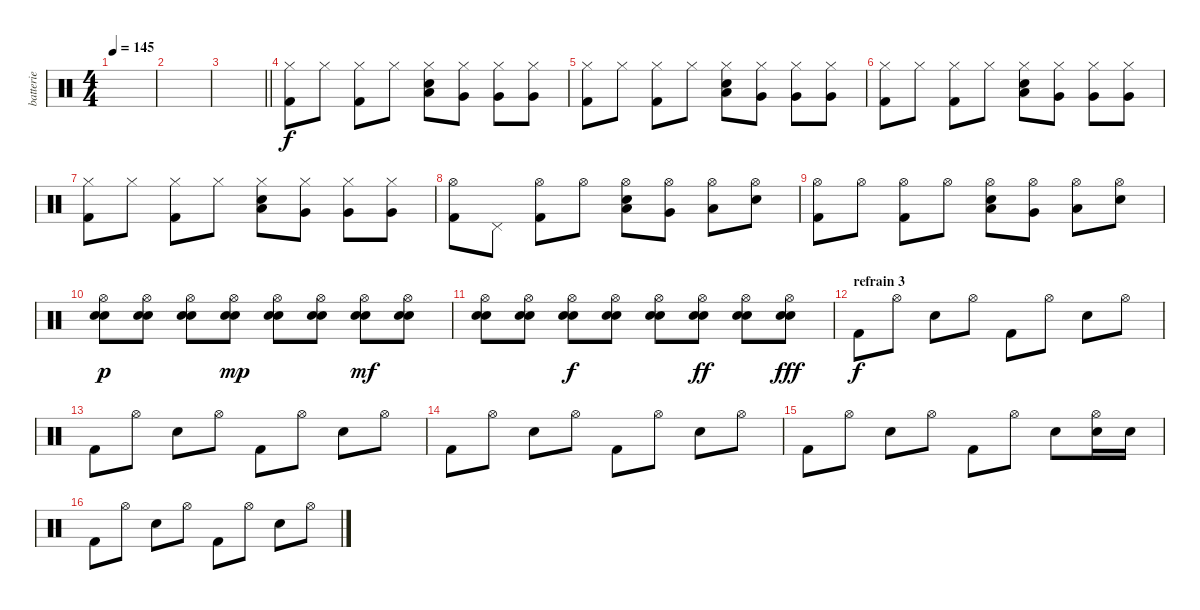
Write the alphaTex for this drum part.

\track ("batterie" "batterie") {instrument percussion}
\staff {score}
\articulation defaults
\ts (4 4)
\tempo 145
\clef neutral
\ks c
|
|
\barLineRight lightlight
|
("Hi-Hat (closed)" "Kick (hit) 2").8 "Hi-Hat (closed)".8 ("Hi-Hat (closed)" "Kick (hit) 2").8 "Hi-Hat (closed)".8 ("Hi-Hat (closed)" "Electric Snare (hit)" "Low Tom (hit)").8 ("Hi-Hat (closed)" "Very Low Tom (hit)").8 ("Hi-Hat (closed)" "Very Low Tom (hit)").8 ("Hi-Hat (closed)" "Very Low Tom (hit)").8 |
("Hi-Hat (closed)" "Kick (hit) 2").8 "Hi-Hat (closed)".8 ("Hi-Hat (closed)" "Kick (hit) 2").8 "Hi-Hat (closed)".8 ("Hi-Hat (closed)" "Electric Snare (hit)" "Low Tom (hit)").8 ("Hi-Hat (closed)" "Very Low Tom (hit)").8 ("Hi-Hat (closed)" "Very Low Tom (hit)").8 ("Hi-Hat (closed)" "Very Low Tom (hit)").8 |
("Hi-Hat (closed)" "Kick (hit) 2").8 "Hi-Hat (closed)".8 ("Hi-Hat (closed)" "Kick (hit) 2").8 "Hi-Hat (closed)".8 ("Hi-Hat (closed)" "Electric Snare (hit)" "Low Tom (hit)").8 ("Hi-Hat (closed)" "Very Low Tom (hit)").8 ("Hi-Hat (closed)" "Very Low Tom (hit)").8 ("Hi-Hat (closed)" "Very Low Tom (hit)").8 |
("Hi-Hat (closed)" "Kick (hit) 2").8 "Hi-Hat (closed)".8 ("Hi-Hat (closed)" "Kick (hit) 2").8 "Hi-Hat (closed)".8 ("Hi-Hat (closed)" "Electric Snare (hit)" "Low Tom (hit)").8 ("Hi-Hat (closed)" "Very Low Tom (hit)").8 ("Hi-Hat (closed)" "Very Low Tom (hit)").8 ("Hi-Hat (closed)" "Very Low Tom (hit)").8 |
("Hi-Hat (open)" "Kick (hit) 2").8 "Pedal Hi-Hat (hit)".8 ("Hi-Hat (open)" "Kick (hit) 2").8 "Hi-Hat (open)".8 ("Hi-Hat (open)" "Electric Snare (hit)" "Low Tom (hit)").8 ("Hi-Hat (open)" "Very Low Tom (hit)").8 ("Hi-Hat (open)" "Low Floor Tom (hit)").8 ("Hi-Hat (open)" "Electric Snare (hit)").8 |
("Hi-Hat (open)" "Kick (hit) 2").8 "Hi-Hat (open)".8 ("Hi-Hat (open)" "Kick (hit) 2").8 "Hi-Hat (open)".8 ("Hi-Hat (open)" "Electric Snare (hit)" "Low Tom (hit)").8 ("Hi-Hat (open)" "Very Low Tom (hit)").8 ("Hi-Hat (open)" "Low Floor Tom (hit)").8 ("Hi-Hat (open)" "Electric Snare (hit)").8 |
("Hi-Hat (open)" "Electric Snare (hit)" "Snare (hit) 2").8{dy p} ("Hi-Hat (open)" "Electric Snare (hit)" "Snare (hit) 2").8 ("Hi-Hat (open)" "Electric Snare (hit)" "Snare (hit) 2").8 ("Hi-Hat (open)" "Electric Snare (hit)" "Snare (hit) 2").8{dy mp} ("Hi-Hat (open)" "Electric Snare (hit)" "Snare (hit) 2").8 ("Hi-Hat (open)" "Electric Snare (hit)" "Snare (hit) 2").8 ("Hi-Hat (open)" "Electric Snare (hit)" "Snare (hit) 2").8{dy mf} ("Hi-Hat (open)" "Electric Snare (hit)" "Snare (hit) 2").8 |
("Hi-Hat (open)" "Electric Snare (hit)" "Snare (hit) 2").8 ("Hi-Hat (open)" "Electric Snare (hit)" "Snare (hit) 2").8 ("Hi-Hat (open)" "Electric Snare (hit)" "Snare (hit) 2").8{dy f} ("Hi-Hat (open)" "Electric Snare (hit)" "Snare (hit) 2").8 ("Hi-Hat (open)" "Electric Snare (hit)" "Snare (hit) 2").8 ("Hi-Hat (open)" "Electric Snare (hit)" "Snare (hit) 2").8{dy ff} ("Hi-Hat (open)" "Electric Snare (hit)" "Snare (hit) 2").8 ("Hi-Hat (open)" "Electric Snare (hit)" "Snare (hit) 2").8{dy fff} |
\section ("" "refrain 3")
"Kick (hit) 2".8{dy f} "Hi-Hat (open)".8 "Electric Snare (hit)".8 "Hi-Hat (open)".8 "Kick (hit) 2".8 "Hi-Hat (open)".8 "Electric Snare (hit)".8 "Hi-Hat (open)".8 |
"Kick (hit) 2".8 "Hi-Hat (open)".8 "Electric Snare (hit)".8 "Hi-Hat (open)".8 "Kick (hit) 2".8 "Hi-Hat (open)".8 "Electric Snare (hit)".8 "Hi-Hat (open)".8 |
"Kick (hit) 2".8 "Hi-Hat (open)".8 "Electric Snare (hit)".8 "Hi-Hat (open)".8 "Kick (hit) 2".8 "Hi-Hat (open)".8 "Electric Snare (hit)".8 "Hi-Hat (open)".8 |
"Kick (hit) 2".8 "Hi-Hat (open)".8 "Electric Snare (hit)".8 "Hi-Hat (open)".8 "Kick (hit) 2".8 "Hi-Hat (open)".8 "Electric Snare (hit)".8 ("Hi-Hat (open)" "Electric Snare (hit)").16 "Electric Snare (hit)".16 |
"Kick (hit) 2".8 "Hi-Hat (open)".8 "Electric Snare (hit)".8 "Hi-Hat (open)".8 "Kick (hit) 2".8 "Hi-Hat (open)".8 "Electric Snare (hit)".8 "Hi-Hat (open)".8
